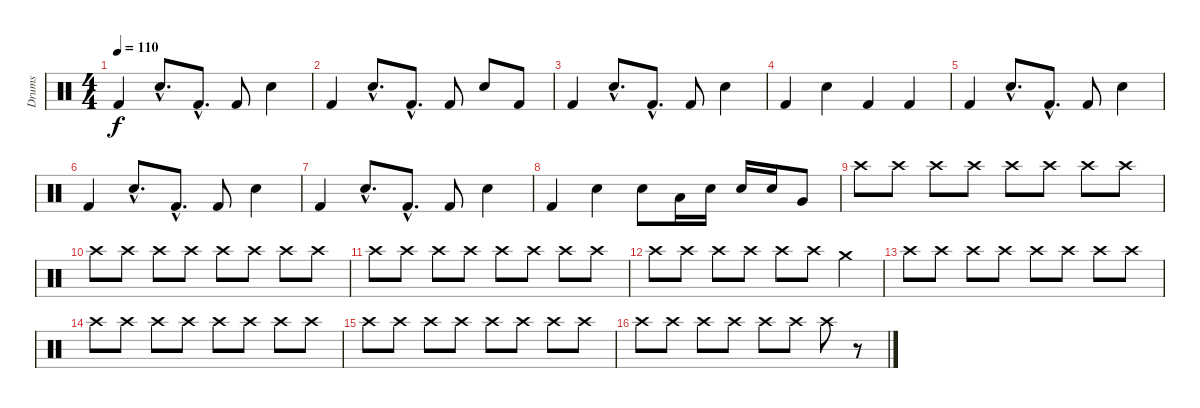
\track ("Drums" "Drums") {instrument percussion}
\staff {score}
\articulation defaults
\ts (4 4)
\tempo 110
\clef neutral
\ks c "Kick (hit) 2".4{dy f} "Electric Snare (hit)"{hac}.8{d} "Kick (hit) 2"{hac}.8{d} "Kick (hit) 2".8 "Electric Snare (hit)".4
|
"Kick (hit) 2".4 "Electric Snare (hit)"{hac}.8{d} "Kick (hit) 2"{hac}.8{d} "Kick (hit) 2".8 "Electric Snare (hit)".8 "Kick (hit) 2".8 |
"Kick (hit) 2".4 "Electric Snare (hit)"{hac}.8{d} "Kick (hit) 2"{hac}.8{d} "Kick (hit) 2".8 "Electric Snare (hit)".4 |
"Kick (hit) 2".4 "Electric Snare (hit)".4 "Kick (hit) 2".4 "Kick (hit) 2".4 |
"Kick (hit) 2".4 "Electric Snare (hit)"{hac}.8{d} "Kick (hit) 2"{hac}.8{d} "Kick (hit) 2".8 "Electric Snare (hit)".4 |
"Kick (hit) 2".4 "Electric Snare (hit)"{hac}.8{d} "Kick (hit) 2"{hac}.8{d} "Kick (hit) 2".8 "Electric Snare (hit)".4 |
"Kick (hit) 2".4 "Electric Snare (hit)"{hac}.8{d} "Kick (hit) 2"{hac}.8{d} "Kick (hit) 2".8 "Electric Snare (hit)".4 |
"Kick (hit) 2".4 "Electric Snare (hit)".4 "Electric Snare (hit)".8 "Low Tom (hit)".16 "Electric Snare (hit)".16 "Electric Snare (hit)".16 "Electric Snare (hit)".16 "Very Low Tom (hit)".8 |
"Crash high (hit)".8 "Crash high (hit)".8 "Crash high (hit)".8 "Crash high (hit)".8 "Crash high (hit)".8 "Crash high (hit)".8 "Crash high (hit)".8 "Crash high (hit)".8 |
"Crash high (hit)".8 "Crash high (hit)".8 "Crash high (hit)".8 "Crash high (hit)".8 "Crash high (hit)".8 "Crash high (hit)".8 "Crash high (hit)".8 "Crash high (hit)".8 |
"Crash high (hit)".8 "Crash high (hit)".8 "Crash high (hit)".8 "Crash high (hit)".8 "Crash high (hit)".8 "Crash high (hit)".8 "Crash high (hit)".8 "Crash high (hit)".8 |
"Crash high (hit)".8 "Crash high (hit)".8 "Crash high (hit)".8 "Crash high (hit)".8 "Crash high (hit)".8 "Crash high (hit)".8 "Crash medium (hit)".4 |
"Crash high (hit)".8 "Crash high (hit)".8 "Crash high (hit)".8 "Crash high (hit)".8 "Crash high (hit)".8 "Crash high (hit)".8 "Crash high (hit)".8 "Crash high (hit)".8 |
"Crash high (hit)".8 "Crash high (hit)".8 "Crash high (hit)".8 "Crash high (hit)".8 "Crash high (hit)".8 "Crash high (hit)".8 "Crash high (hit)".8 "Crash high (hit)".8 |
"Crash high (hit)".8 "Crash high (hit)".8 "Crash high (hit)".8 "Crash high (hit)".8 "Crash high (hit)".8 "Crash high (hit)".8 "Crash high (hit)".8 "Crash high (hit)".8 |
"Crash high (hit)".8 "Crash high (hit)".8 "Crash high (hit)".8 "Crash high (hit)".8 "Crash high (hit)".8 "Crash high (hit)".8 "Crash high (hit)".8 r.8
